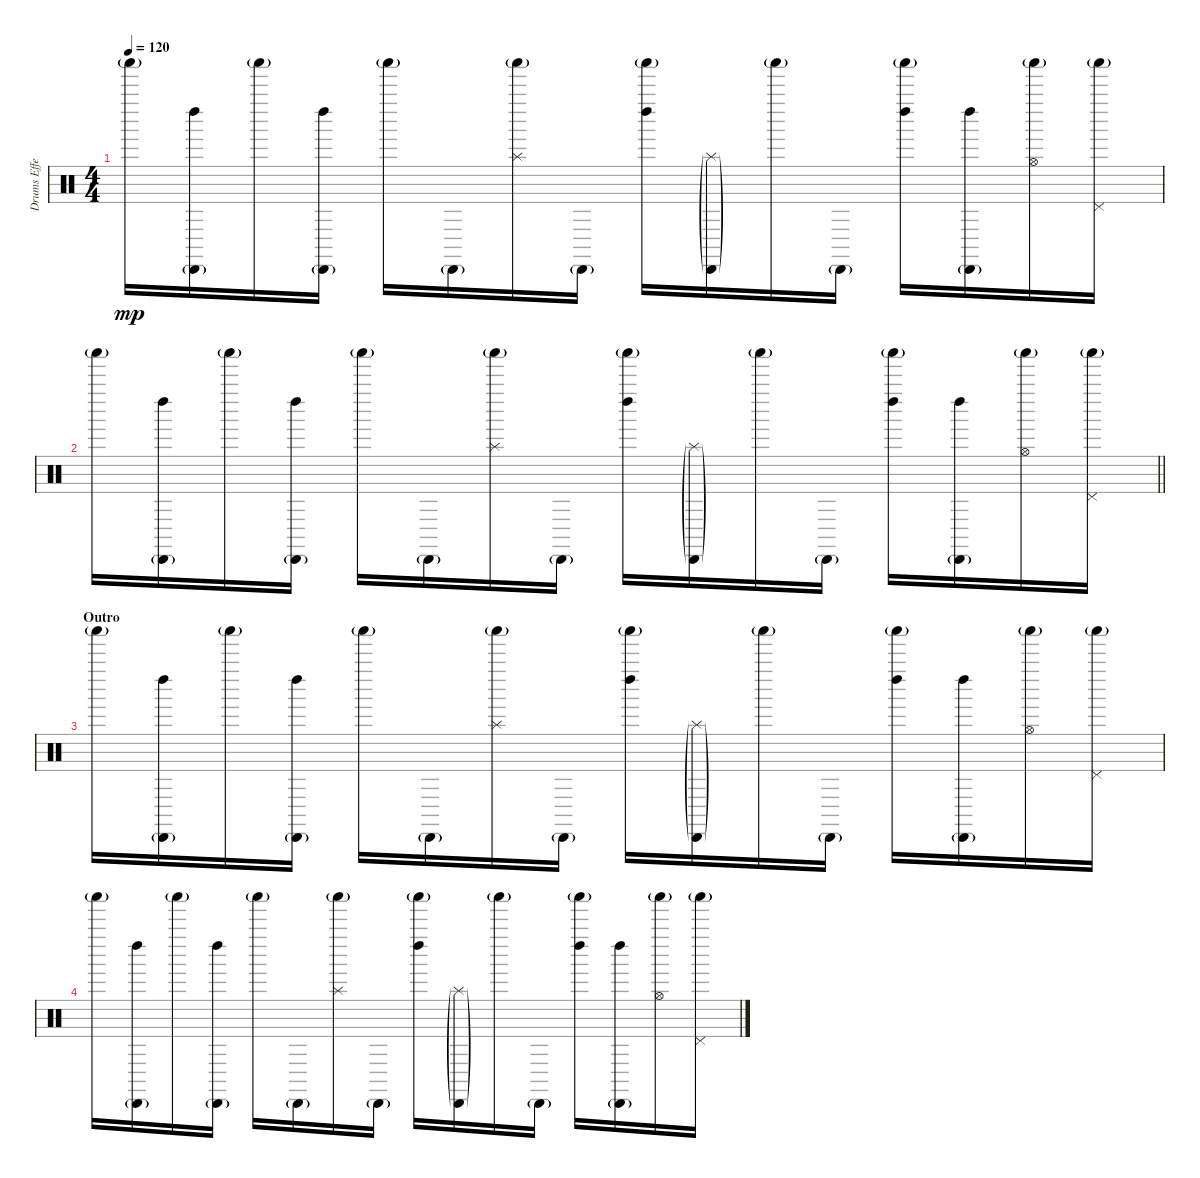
\track ("Drums Effects" "Drums Effe") {instrument percussion}
\staff {score}
\articulation defaults
\ts (4 4)
\tempo 120
\clef neutral
\ks c "Shaker (hit)"{g}.16{dy mp}
("Cabasa (hit)"{g} "Left Maraca (hit)").16 "Shaker (hit)"{g}.16 ("Cabasa (hit)"{g} "Left Maraca (hit)").16 "Shaker (hit)"{g}.16 "Cabasa (hit)"{g}.16 ("Shaker (hit)"{g} "Splash (hit)").16 "Cabasa (hit)"{g}.16 ("Shaker (hit)"{g} "Left Maraca (hit)").16 ("Cabasa (hit)"{g} "Splash (hit)"{g}).16 "Shaker (hit)"{g}.16 "Cabasa (hit)"{g}.16 ("Shaker (hit)"{g} "Left Maraca (hit)").16 ("Cabasa (hit)"{g} "Left Maraca (hit)").16 ("Shaker (hit)"{g} "Hi-Hat (open)").16 ("Shaker (hit)"{g} "Pedal Hi-Hat (hit)").16 |
\barLineRight lightlight "Shaker (hit)"{g}.16
("Cabasa (hit)"{g} "Left Maraca (hit)").16 "Shaker (hit)"{g}.16 ("Cabasa (hit)"{g} "Left Maraca (hit)").16 "Shaker (hit)"{g}.16 "Cabasa (hit)"{g}.16 ("Shaker (hit)"{g} "Splash (hit)").16 "Cabasa (hit)"{g}.16 ("Shaker (hit)"{g} "Left Maraca (hit)").16 ("Cabasa (hit)"{g} "Splash (hit)"{g}).16 "Shaker (hit)"{g}.16 "Cabasa (hit)"{g}.16 ("Shaker (hit)"{g} "Left Maraca (hit)").16 ("Cabasa (hit)"{g} "Left Maraca (hit)").16 ("Shaker (hit)"{g} "Hi-Hat (open)").16 ("Shaker (hit)"{g} "Pedal Hi-Hat (hit)").16 |
\section ("" "Outro")
"Shaker (hit)"{g}.16 ("Cabasa (hit)"{g} "Left Maraca (hit)").16 "Shaker (hit)"{g}.16 ("Cabasa (hit)"{g} "Left Maraca (hit)").16 "Shaker (hit)"{g}.16 "Cabasa (hit)"{g}.16 ("Shaker (hit)"{g} "Splash (hit)").16 "Cabasa (hit)"{g}.16 ("Shaker (hit)"{g} "Left Maraca (hit)").16 ("Cabasa (hit)"{g} "Splash (hit)"{g}).16 "Shaker (hit)"{g}.16 "Cabasa (hit)"{g}.16 ("Shaker (hit)"{g} "Left Maraca (hit)").16 ("Cabasa (hit)"{g} "Left Maraca (hit)").16 ("Shaker (hit)"{g} "Hi-Hat (open)").16 ("Shaker (hit)"{g} "Pedal Hi-Hat (hit)").16 |
"Shaker (hit)"{g}.16 ("Cabasa (hit)"{g} "Left Maraca (hit)").16 "Shaker (hit)"{g}.16 ("Cabasa (hit)"{g} "Left Maraca (hit)").16 "Shaker (hit)"{g}.16 "Cabasa (hit)"{g}.16 ("Shaker (hit)"{g} "Splash (hit)").16 "Cabasa (hit)"{g}.16 ("Shaker (hit)"{g} "Left Maraca (hit)").16 ("Cabasa (hit)"{g} "Splash (hit)"{g}).16 "Shaker (hit)"{g}.16 "Cabasa (hit)"{g}.16 ("Shaker (hit)"{g} "Left Maraca (hit)").16 ("Cabasa (hit)"{g} "Left Maraca (hit)").16 ("Shaker (hit)"{g} "Hi-Hat (open)").16 ("Shaker (hit)"{g} "Pedal Hi-Hat (hit)").16
